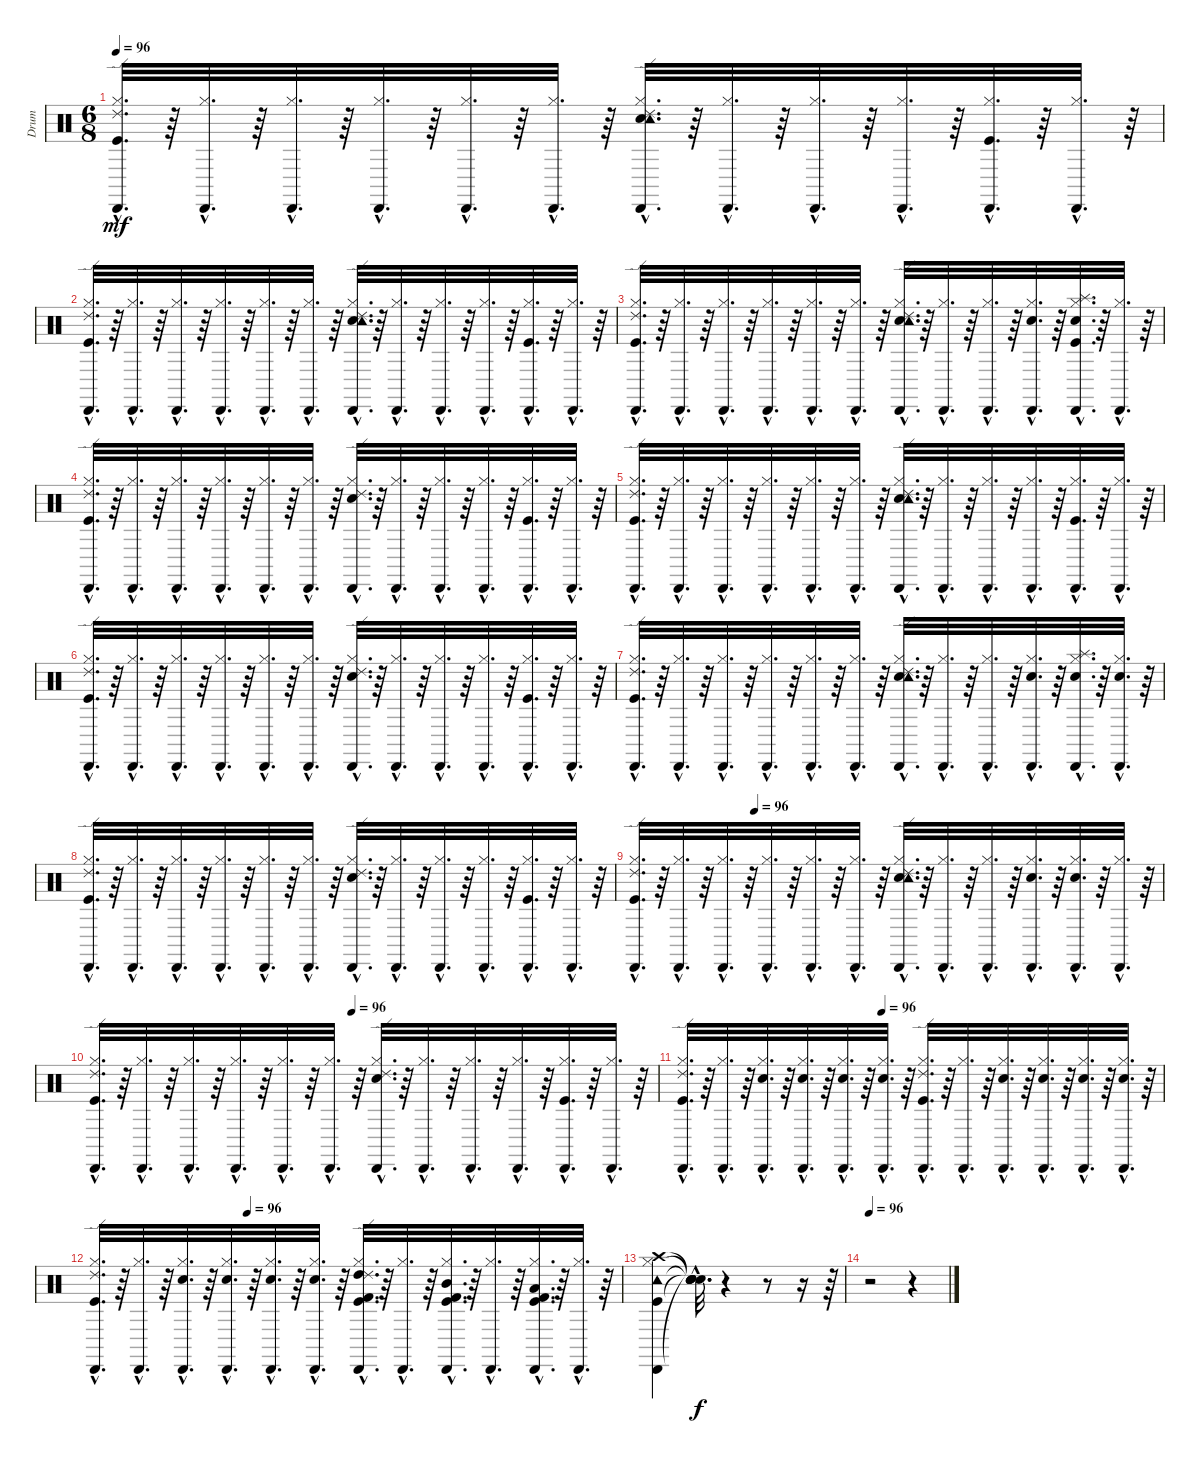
\track ("Drum" "Drum") {instrument percussion}
\staff {score}
\articulation defaults
\ts (6 8)
\tempo 96
\clef neutral
\ks c
("Kick (hit)"{hac} "Hi-Hat (closed)"{hac} "Cabasa (hit)"{hac} "Ride (edge) 2"{hac}).32{d dy mf} r.64 ("Hi-Hat (closed)"{hac} "Cabasa (hit)"{hac}).32{d} r.64 ("Hi-Hat (closed)"{hac} "Cabasa (hit)"{hac}).32{d} r.64 ("Hi-Hat (closed)"{hac} "Cabasa (hit)"{hac}).32{d} r.64 ("Hi-Hat (closed)"{hac} "Cabasa (hit)"{hac}).32{d} r.64 ("Hi-Hat (closed)"{hac} "Cabasa (hit)"{hac}).32{d} r.64 ("Snare (hit) 2"{hac} "Hi-Hat (closed)"{hac} "Cabasa (hit)"{hac} "Ride (edge) 2"{hac} "Tambourine (hit)"{hac}).32{d} r.64 ("Hi-Hat (closed)"{hac} "Cabasa (hit)"{hac}).32{d} r.64 ("Hi-Hat (closed)"{hac} "Cabasa (hit)"{hac}).32{d} r.64 ("Hi-Hat (closed)"{hac} "Cabasa (hit)"{hac}).32{d} r.64 ("Hi-Hat (closed)"{hac} "Cabasa (hit)"{hac} "Kick (hit)"{hac}).32{d} r.64 ("Hi-Hat (closed)"{hac} "Cabasa (hit)"{hac}).32{d} r.64 |
("Ride (edge) 2"{hac} "Cabasa (hit)"{hac} "Hi-Hat (closed)"{hac} "Kick (hit)"{hac}).32{d} r.64 ("Cabasa (hit)"{hac} "Hi-Hat (closed)"{hac}).32{d} r.64 ("Cabasa (hit)"{hac} "Hi-Hat (closed)"{hac}).32{d} r.64 ("Cabasa (hit)"{hac} "Hi-Hat (closed)"{hac}).32{d} r.64 ("Cabasa (hit)"{hac} "Hi-Hat (closed)"{hac}).32{d} r.64 ("Cabasa (hit)"{hac} "Hi-Hat (closed)"{hac}).32{d} r.64 ("Ride (edge) 2"{hac} "Cabasa (hit)"{hac} "Hi-Hat (closed)"{hac} "Snare (hit) 2"{hac} "Tambourine (hit)"{hac}).32{d} r.64 ("Cabasa (hit)"{hac} "Hi-Hat (closed)"{hac}).32{d} r.64 ("Cabasa (hit)"{hac} "Hi-Hat (closed)"{hac}).32{d} r.64 ("Cabasa (hit)"{hac} "Hi-Hat (closed)"{hac}).32{d} r.64 ("Cabasa (hit)"{hac} "Hi-Hat (closed)"{hac} "Kick (hit)"{hac}).32{d} r.64 ("Cabasa (hit)"{hac} "Hi-Hat (closed)"{hac}).32{d} r.64 |
("Ride (edge) 2"{hac} "Cabasa (hit)"{hac} "Hi-Hat (closed)"{hac} "Kick (hit)"{hac}).32{d} r.64 ("Cabasa (hit)"{hac} "Hi-Hat (closed)"{hac}).32{d} r.64 ("Cabasa (hit)"{hac} "Hi-Hat (closed)"{hac}).32{d} r.64 ("Cabasa (hit)"{hac} "Hi-Hat (closed)"{hac}).32{d} r.64 ("Cabasa (hit)"{hac} "Hi-Hat (closed)"{hac}).32{d} r.64 ("Cabasa (hit)"{hac} "Hi-Hat (closed)"{hac}).32{d} r.64 ("Ride (edge) 2"{hac} "Cabasa (hit)"{hac} "Hi-Hat (closed)"{hac} "Snare (hit) 2"{hac} "Tambourine (hit)"{hac}).32{d} r.64 ("Cabasa (hit)"{hac} "Hi-Hat (closed)"{hac}).32{d} r.64 ("Cabasa (hit)"{hac} "Hi-Hat (closed)"{hac}).32{d} r.64 ("Snare (hit) 2"{hac} "Cabasa (hit)"{hac} "Hi-Hat (closed)"{hac}).32{d} r.64 ("Snare (hit) 2"{hac} "Cabasa (hit)"{hac} "Hi-Hat (closed)"{hac} "Splash (hit)"{hac} "Kick (hit)"{hac}).32{d} r.64 ("Cabasa (hit)"{hac} "Hi-Hat (closed)"{hac}).32{d} r.64 |
("Hi-Hat (closed)"{hac} "Kick (hit)"{hac} "Cabasa (hit)"{hac} "Ride (edge) 2"{hac}).32{d} r.64 ("Hi-Hat (closed)"{hac} "Cabasa (hit)"{hac}).32{d} r.64 ("Hi-Hat (closed)"{hac} "Cabasa (hit)"{hac}).32{d} r.64 ("Hi-Hat (closed)"{hac} "Cabasa (hit)"{hac}).32{d} r.64 ("Hi-Hat (closed)"{hac} "Cabasa (hit)"{hac}).32{d} r.64 ("Hi-Hat (closed)"{hac} "Cabasa (hit)"{hac}).32{d} r.64 ("Hi-Hat (closed)"{hac} "Snare (hit) 2"{hac} "Cabasa (hit)"{hac} "Ride (edge) 2"{hac}).32{d} r.64 ("Hi-Hat (closed)"{hac} "Cabasa (hit)"{hac}).32{d} r.64 ("Hi-Hat (closed)"{hac} "Cabasa (hit)"{hac}).32{d} r.64 ("Hi-Hat (closed)"{hac} "Cabasa (hit)"{hac}).32{d} r.64 ("Hi-Hat (closed)"{hac} "Cabasa (hit)"{hac} "Kick (hit)"{hac}).32{d} r.64 ("Hi-Hat (closed)"{hac} "Cabasa (hit)"{hac}).32{d} r.64 |
("Kick (hit)"{hac} "Hi-Hat (closed)"{hac} "Cabasa (hit)"{hac} "Ride (edge) 2"{hac}).32{d} r.64 ("Hi-Hat (closed)"{hac} "Cabasa (hit)"{hac}).32{d} r.64 ("Hi-Hat (closed)"{hac} "Cabasa (hit)"{hac}).32{d} r.64 ("Hi-Hat (closed)"{hac} "Cabasa (hit)"{hac}).32{d} r.64 ("Hi-Hat (closed)"{hac} "Cabasa (hit)"{hac}).32{d} r.64 ("Hi-Hat (closed)"{hac} "Cabasa (hit)"{hac}).32{d} r.64 ("Snare (hit) 2"{hac} "Hi-Hat (closed)"{hac} "Cabasa (hit)"{hac} "Ride (edge) 2"{hac} "Tambourine (hit)"{hac}).32{d} r.64 ("Hi-Hat (closed)"{hac} "Cabasa (hit)"{hac}).32{d} r.64 ("Hi-Hat (closed)"{hac} "Cabasa (hit)"{hac}).32{d} r.64 ("Hi-Hat (closed)"{hac} "Cabasa (hit)"{hac}).32{d} r.64 ("Hi-Hat (closed)"{hac} "Cabasa (hit)"{hac} "Kick (hit)"{hac}).32{d} r.64 ("Hi-Hat (closed)"{hac} "Cabasa (hit)"{hac}).32{d} r.64 |
("Ride (edge) 2"{hac} "Cabasa (hit)"{hac} "Hi-Hat (closed)"{hac} "Kick (hit)"{hac}).32{d} r.64 ("Cabasa (hit)"{hac} "Hi-Hat (closed)"{hac}).32{d} r.64 ("Cabasa (hit)"{hac} "Hi-Hat (closed)"{hac}).32{d} r.64 ("Cabasa (hit)"{hac} "Hi-Hat (closed)"{hac}).32{d} r.64 ("Cabasa (hit)"{hac} "Hi-Hat (closed)"{hac}).32{d} r.64 ("Cabasa (hit)"{hac} "Hi-Hat (closed)"{hac}).32{d} r.64 ("Ride (edge) 2"{hac} "Cabasa (hit)"{hac} "Hi-Hat (closed)"{hac} "Snare (hit) 2"{hac}).32{d} r.64 ("Cabasa (hit)"{hac} "Hi-Hat (closed)"{hac}).32{d} r.64 ("Cabasa (hit)"{hac} "Hi-Hat (closed)"{hac}).32{d} r.64 ("Cabasa (hit)"{hac} "Hi-Hat (closed)"{hac}).32{d} r.64 ("Cabasa (hit)"{hac} "Hi-Hat (closed)"{hac} "Kick (hit)"{hac}).32{d} r.64 ("Cabasa (hit)"{hac} "Hi-Hat (closed)"{hac}).32{d} r.64 |
("Ride (edge) 2"{hac} "Cabasa (hit)"{hac} "Hi-Hat (closed)"{hac} "Kick (hit)"{hac}).32{d} r.64 ("Cabasa (hit)"{hac} "Hi-Hat (closed)"{hac}).32{d} r.64 ("Cabasa (hit)"{hac} "Hi-Hat (closed)"{hac}).32{d} r.64 ("Cabasa (hit)"{hac} "Hi-Hat (closed)"{hac}).32{d} r.64 ("Cabasa (hit)"{hac} "Hi-Hat (closed)"{hac}).32{d} r.64 ("Cabasa (hit)"{hac} "Hi-Hat (closed)"{hac}).32{d} r.64 ("Ride (edge) 2"{hac} "Cabasa (hit)"{hac} "Hi-Hat (closed)"{hac} "Snare (hit) 2"{hac} "Tambourine (hit)"{hac}).32{d} r.64 ("Cabasa (hit)"{hac} "Hi-Hat (closed)"{hac}).32{d} r.64 ("Cabasa (hit)"{hac} "Hi-Hat (closed)"{hac}).32{d} r.64 ("Snare (hit) 2"{hac} "Cabasa (hit)"{hac} "Hi-Hat (closed)"{hac}).32{d} r.64 ("Snare (hit) 2"{hac} "Cabasa (hit)"{hac} "Hi-Hat (closed)"{hac} "Splash (hit)"{hac}).32{d} r.64 ("Cabasa (hit)"{hac} "Hi-Hat (closed)"{hac} "Snare (hit) 2"{hac}).32{d} r.64 |
("Ride (edge) 2"{hac} "Cabasa (hit)"{hac} "Hi-Hat (closed)"{hac} "Kick (hit)"{hac}).32{d} r.64 ("Cabasa (hit)"{hac} "Hi-Hat (closed)"{hac}).32{d} r.64 ("Cabasa (hit)"{hac} "Hi-Hat (closed)"{hac}).32{d} r.64 ("Cabasa (hit)"{hac} "Hi-Hat (closed)"{hac}).32{d} r.64 ("Cabasa (hit)"{hac} "Hi-Hat (closed)"{hac}).32{d} r.64 ("Cabasa (hit)"{hac} "Hi-Hat (closed)"{hac}).32{d} r.64 ("Ride (edge) 2"{hac} "Cabasa (hit)"{hac} "Hi-Hat (closed)"{hac} "Snare (hit) 2"{hac}).32{d} r.64 ("Cabasa (hit)"{hac} "Hi-Hat (closed)"{hac}).32{d} r.64 ("Cabasa (hit)"{hac} "Hi-Hat (closed)"{hac}).32{d} r.64 ("Cabasa (hit)"{hac} "Hi-Hat (closed)"{hac}).32{d} r.64 ("Kick (hit)"{hac} "Cabasa (hit)"{hac} "Hi-Hat (closed)"{hac}).32{d} r.64 ("Cabasa (hit)"{hac} "Hi-Hat (closed)"{hac}).32{d} r.64 |
\tempo (96 0.22916666666666666)
("Ride (edge) 2"{hac} "Cabasa (hit)"{hac} "Kick (hit)"{hac} "Hi-Hat (closed)"{hac}).32{d} r.64 ("Cabasa (hit)"{hac} "Hi-Hat (closed)"{hac}).32{d} r.64 ("Cabasa (hit)"{hac} "Hi-Hat (closed)"{hac}).32{d} r.64 ("Cabasa (hit)"{hac} "Hi-Hat (closed)"{hac}).32{d} r.64 ("Cabasa (hit)"{hac} "Hi-Hat (closed)"{hac}).32{d} r.64 ("Cabasa (hit)"{hac} "Hi-Hat (closed)"{hac}).32{d} r.64 ("Ride (edge) 2"{hac} "Cabasa (hit)"{hac} "Snare (hit) 2"{hac} "Hi-Hat (closed)"{hac} "Tambourine (hit)"{hac}).32{d} r.64 ("Cabasa (hit)"{hac} "Hi-Hat (closed)"{hac}).32{d} r.64 ("Cabasa (hit)"{hac} "Hi-Hat (closed)"{hac}).32{d} r.64 ("Cabasa (hit)"{hac} "Snare (hit) 2"{hac} "Hi-Hat (closed)"{hac}).32{d} r.64 ("Cabasa (hit)"{hac} "Snare (hit) 2"{hac} "Hi-Hat (closed)"{hac}).32{d} r.64 ("Cabasa (hit)"{hac} "Hi-Hat (closed)"{hac}).32{d} r.64 |
\tempo (96 0.4583333333333333)
("Kick (hit)"{hac} "Hi-Hat (closed)"{hac} "Cabasa (hit)"{hac} "Ride (edge) 2"{hac}).32{d} r.64 ("Hi-Hat (closed)"{hac} "Cabasa (hit)"{hac}).32{d} r.64 ("Hi-Hat (closed)"{hac} "Cabasa (hit)"{hac}).32{d} r.64 ("Hi-Hat (closed)"{hac} "Cabasa (hit)"{hac}).32{d} r.64 ("Hi-Hat (closed)"{hac} "Cabasa (hit)"{hac}).32{d} r.64 ("Hi-Hat (closed)"{hac} "Cabasa (hit)"{hac}).32{d} r.64 ("Snare (hit) 2"{hac} "Hi-Hat (closed)"{hac} "Cabasa (hit)"{hac} "Ride (edge) 2"{hac}).32{d} r.64 ("Hi-Hat (closed)"{hac} "Cabasa (hit)"{hac}).32{d} r.64 ("Hi-Hat (closed)"{hac} "Cabasa (hit)"{hac}).32{d} r.64 ("Hi-Hat (closed)"{hac} "Cabasa (hit)"{hac}).32{d} r.64 ("Kick (hit)"{hac} "Hi-Hat (closed)"{hac} "Cabasa (hit)"{hac}).32{d} r.64 ("Hi-Hat (closed)"{hac} "Cabasa (hit)"{hac}).32{d} r.64 |
\tempo (96 0.4166666666666667)
("Ride (edge) 2"{hac} "Cabasa (hit)"{hac} "Hi-Hat (closed)"{hac} "Kick (hit)"{hac}).32{d} r.64 ("Cabasa (hit)"{hac} "Hi-Hat (closed)"{hac}).32{d} r.64 ("Snare (hit) 2"{hac} "Cabasa (hit)"{hac} "Hi-Hat (closed)"{hac}).32{d} r.64 ("Snare (hit) 2"{hac} "Cabasa (hit)"{hac} "Hi-Hat (closed)"{hac}).32{d} r.64 ("Snare (hit) 2"{hac} "Cabasa (hit)"{hac} "Hi-Hat (closed)"{hac}).32{d} r.64 ("Snare (hit) 2"{hac} "Cabasa (hit)"{hac} "Hi-Hat (closed)"{hac}).32{d} r.64 ("Kick (hit)"{hac} "Ride (edge) 2"{hac} "Cabasa (hit)"{hac} "Hi-Hat (closed)"{hac}).32{d} r.64 ("Cabasa (hit)"{hac} "Hi-Hat (closed)"{hac}).32{d} r.64 ("Snare (hit) 2"{hac} "Cabasa (hit)"{hac} "Hi-Hat (closed)"{hac}).32{d} r.64 ("Snare (hit) 2"{hac} "Cabasa (hit)"{hac} "Hi-Hat (closed)"{hac}).32{d} r.64 ("Snare (hit) 2"{hac} "Cabasa (hit)"{hac} "Hi-Hat (closed)"{hac}).32{d} r.64 ("Snare (hit) 2"{hac} "Cabasa (hit)"{hac} "Hi-Hat (closed)"{hac}).32{d} r.64 |
\tempo (96 0.2916666666666667)
("Kick (hit)"{hac} "Hi-Hat (closed)"{hac} "Cabasa (hit)"{hac} "Ride (edge) 2"{hac}).32{d} r.64 ("Hi-Hat (closed)"{hac} "Cabasa (hit)"{hac}).32{d} r.64 ("Hi-Hat (closed)"{hac} "Cabasa (hit)"{hac} "Snare (hit) 2"{hac}).32{d} r.64 ("Hi-Hat (closed)"{hac} "Cabasa (hit)"{hac} "Snare (hit) 2"{hac}).32{d} r.64 ("Hi-Hat (closed)"{hac} "Cabasa (hit)"{hac} "Snare (hit) 2"{hac}).32{d} r.64 ("Hi-Hat (closed)"{hac} "Cabasa (hit)"{hac} "Snare (hit) 2"{hac}).32{d} r.64 ("Kick (hit) 2"{hac} "High Tom (hit)"{hac} "Hi-Hat (closed)"{hac} "Cabasa (hit)"{hac} "Ride (edge) 2"{hac} "Kick (hit)"{hac}).32{d} r.64 ("Hi-Hat (closed)"{hac} "Cabasa (hit)"{hac}).32{d} r.64 ("Kick (hit) 2"{hac} "Mid Tom (hit)"{hac} "Kick (hit)"{hac} "Hi-Hat (closed)"{hac} "Cabasa (hit)"{hac}).32{d} r.64 ("Hi-Hat (closed)"{hac} "Cabasa (hit)"{hac}).32{d} r.64 ("Kick (hit) 2"{hac} "Low Tom (hit)"{hac} "Kick (hit)"{hac} "Hi-Hat (closed)"{hac} "Cabasa (hit)"{hac}).32{d} r.64 ("Hi-Hat (closed)"{hac} "Cabasa (hit)"{hac}).32{d} r.64 |
("Tambourine (hit)" "Kick (hit)" "Hi-Hat (closed)" "Crash high (hit)" "Cabasa (hit)").4 ("Snare (hit)"{hac t} "Snare (hit)"{hac t} "Snare (hit)"{hac t} "Snare (hit)"{hac t} "Snare (hit)"{hac t}).32{d dy f} r.4 r.8 r.16 r.64 |
\tempo 96
r.2 r.4
